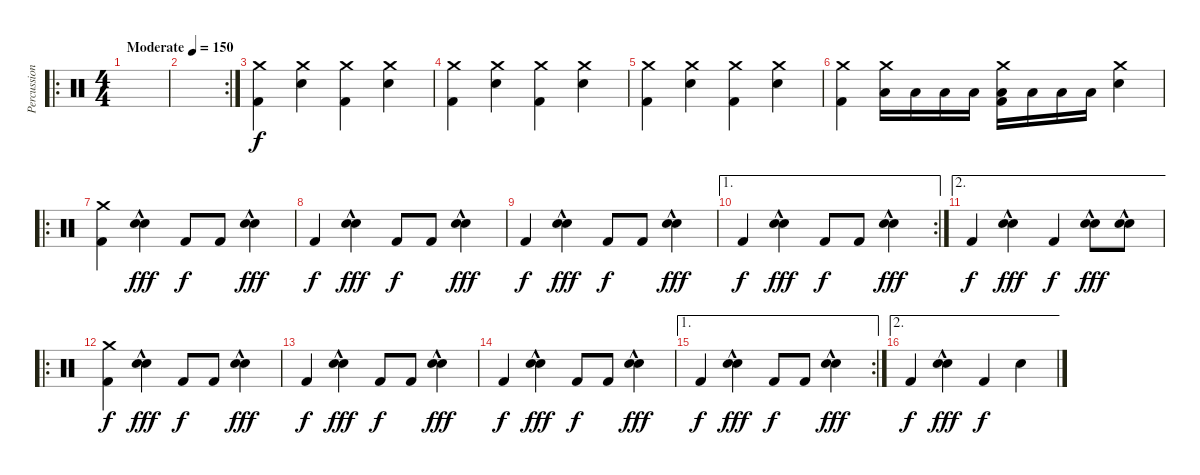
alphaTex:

\track ("Percussion" "Percussion") {instrument percussion}
\staff {score}
\articulation defaults
\ro
\ts (4 4)
\tempo (150 "Moderate")
\clef neutral
\ks c
|
\rc 2
|
("Crash medium (hit)" "Kick (hit) 2").4 ("Crash medium (hit)" "Snare (hit) 2").4 ("Crash medium (hit)" "Kick (hit) 2").4 ("Crash medium (hit)" "Snare (hit) 2").4 |
("Crash medium (hit)" "Kick (hit) 2").4 ("Crash medium (hit)" "Snare (hit) 2").4 ("Crash medium (hit)" "Kick (hit) 2").4 ("Crash medium (hit)" "Snare (hit) 2").4 |
("Crash medium (hit)" "Kick (hit) 2").4 ("Crash medium (hit)" "Snare (hit) 2").4 ("Crash medium (hit)" "Kick (hit) 2").4 ("Crash medium (hit)" "Snare (hit) 2").4 |
("Crash medium (hit)" "Kick (hit) 2").4 ("Crash medium (hit)" "Low Tom (hit)").16 "Low Tom (hit)".16 "Low Tom (hit)".16 "Low Tom (hit)".16 ("Crash medium (hit)" "Low Tom (hit)" "Kick (hit) 2").16 "Low Tom (hit)".16 "Low Tom (hit)".16 "Low Tom (hit)".16 ("Crash medium (hit)" "Snare (hit) 2").4 |
\ro
("Crash medium (hit)" "Kick (hit) 2").4 ("Hand Clap (hit)"{hac} "Snare (hit) 2").4{dy fff} "Kick (hit) 2".8{dy f} "Kick (hit) 2".8 ("Hand Clap (hit)"{hac} "Snare (hit) 2").4{dy fff} |
"Kick (hit) 2".4{dy f} ("Hand Clap (hit)"{hac} "Snare (hit) 2").4{dy fff} "Kick (hit) 2".8{dy f} "Kick (hit) 2".8 ("Hand Clap (hit)"{hac} "Snare (hit) 2").4{dy fff} |
"Kick (hit) 2".4{dy f} ("Hand Clap (hit)"{hac} "Snare (hit) 2").4{dy fff} "Kick (hit) 2".8{dy f} "Kick (hit) 2".8 ("Hand Clap (hit)"{hac} "Snare (hit) 2").4{dy fff} |
\ae 1
\rc 2 "Kick (hit) 2".4{dy f}
("Hand Clap (hit)"{hac} "Snare (hit) 2").4{dy fff} "Kick (hit) 2".8{dy f} "Kick (hit) 2".8 ("Hand Clap (hit)"{hac} "Snare (hit) 2").4{dy fff} |
\ae 2 "Kick (hit) 2".4{dy f}
("Hand Clap (hit)"{hac} "Snare (hit) 2").4{dy fff} "Kick (hit) 2".4{dy f} ("Hand Clap (hit)"{hac} "Snare (hit) 2").8{dy fff} ("Hand Clap (hit)"{hac} "Snare (hit) 2").8 |
\ro
("Crash medium (hit)" "Kick (hit) 2").4{dy f} ("Hand Clap (hit)"{hac} "Snare (hit) 2").4{dy fff} "Kick (hit) 2".8{dy f} "Kick (hit) 2".8 ("Hand Clap (hit)"{hac} "Snare (hit) 2").4{dy fff} |
"Kick (hit) 2".4{dy f} ("Hand Clap (hit)"{hac} "Snare (hit) 2").4{dy fff} "Kick (hit) 2".8{dy f} "Kick (hit) 2".8 ("Hand Clap (hit)"{hac} "Snare (hit) 2").4{dy fff} |
"Kick (hit) 2".4{dy f} ("Hand Clap (hit)"{hac} "Snare (hit) 2").4{dy fff} "Kick (hit) 2".8{dy f} "Kick (hit) 2".8 ("Hand Clap (hit)"{hac} "Snare (hit) 2").4{dy fff} |
\ae 1
\rc 2 "Kick (hit) 2".4{dy f}
("Hand Clap (hit)"{hac} "Snare (hit) 2").4{dy fff} "Kick (hit) 2".8{dy f} "Kick (hit) 2".8 ("Hand Clap (hit)"{hac} "Snare (hit) 2").4{dy fff} |
\ae 2 "Kick (hit) 2".4{dy f}
("Hand Clap (hit)"{hac} "Snare (hit) 2").4{dy fff} "Kick (hit) 2".4{dy f} "Snare (hit) 2".4
